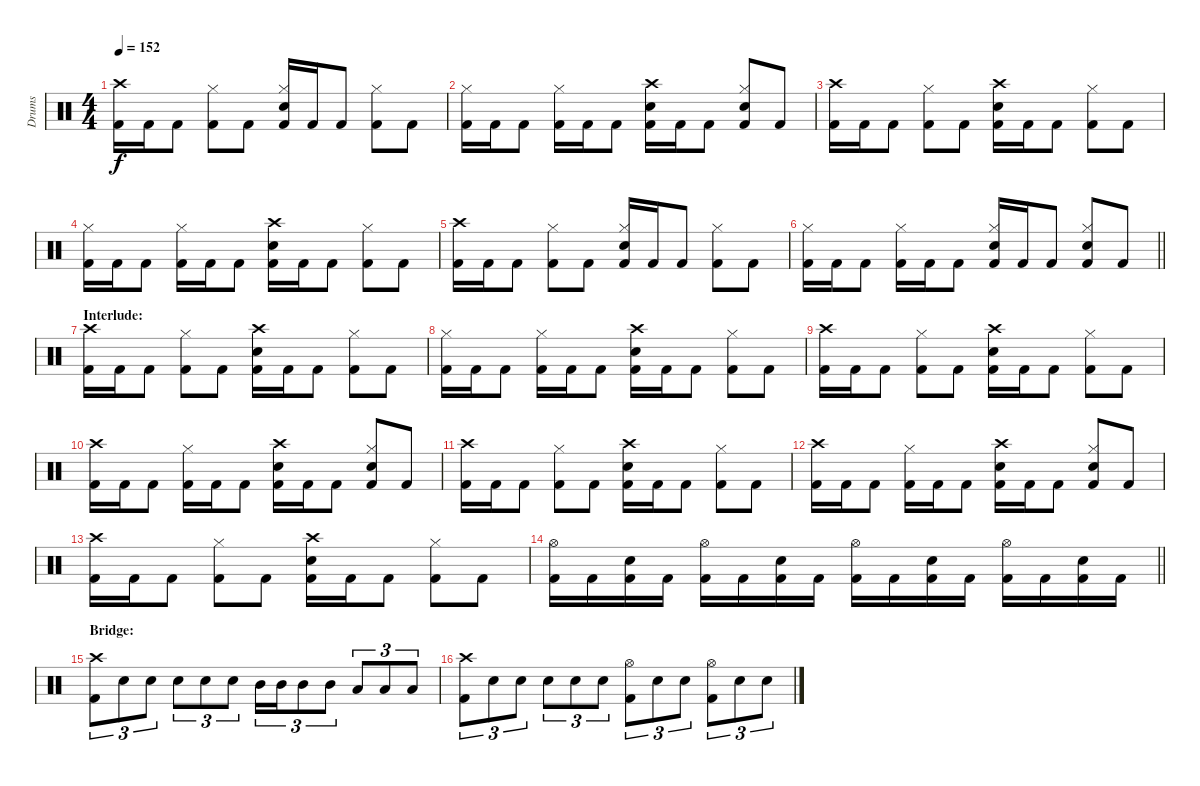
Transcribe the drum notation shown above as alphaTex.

\track ("Drums" "Drums") {instrument percussion}
\staff {score}
\articulation defaults
\ts (4 4)
\tempo 152
\clef neutral
\ks c
("Crash high (hit)" "Kick (hit) 2").16{dy f} "Kick (hit) 2".16 "Kick (hit) 2".8 ("Hi-Hat (closed)" "Kick (hit) 2").8 "Kick (hit) 2".8 ("Hi-Hat (closed)" "Snare (hit) 2" "Kick (hit) 2").16 "Kick (hit) 2".16 "Kick (hit) 2".8 ("Hi-Hat (closed)" "Kick (hit) 2").8 "Kick (hit) 2".8 |
("Hi-Hat (closed)" "Kick (hit) 2").16 "Kick (hit) 2".16 "Kick (hit) 2".8 ("Hi-Hat (closed)" "Kick (hit) 2").16 "Kick (hit) 2".16 "Kick (hit) 2".8 ("Crash high (hit)" "Snare (hit) 2" "Kick (hit) 2").16 "Kick (hit) 2".16 "Kick (hit) 2".8 ("Hi-Hat (closed)" "Snare (hit) 2" "Kick (hit) 2").8 "Kick (hit) 2".8 |
("Crash high (hit)" "Kick (hit) 2").16 "Kick (hit) 2".16 "Kick (hit) 2".8 ("Hi-Hat (closed)" "Kick (hit) 2").8 "Kick (hit) 2".8 ("Crash high (hit)" "Snare (hit) 2" "Kick (hit) 2").16 "Kick (hit) 2".16 "Kick (hit) 2".8 ("Hi-Hat (closed)" "Kick (hit) 2").8 "Kick (hit) 2".8 |
("Hi-Hat (closed)" "Kick (hit) 2").16 "Kick (hit) 2".16 "Kick (hit) 2".8 ("Hi-Hat (closed)" "Kick (hit) 2").16 "Kick (hit) 2".16 "Kick (hit) 2".8 ("Crash high (hit)" "Snare (hit) 2" "Kick (hit) 2").16 "Kick (hit) 2".16 "Kick (hit) 2".8 ("Hi-Hat (closed)" "Kick (hit) 2").8 "Kick (hit) 2".8 |
("Crash high (hit)" "Kick (hit) 2").16 "Kick (hit) 2".16 "Kick (hit) 2".8 ("Hi-Hat (closed)" "Kick (hit) 2").8 "Kick (hit) 2".8 ("Hi-Hat (closed)" "Snare (hit) 2" "Kick (hit) 2").16 "Kick (hit) 2".16 "Kick (hit) 2".8 ("Hi-Hat (closed)" "Kick (hit) 2").8 "Kick (hit) 2".8 |
\barLineRight lightlight
("Hi-Hat (closed)" "Kick (hit) 2").16 "Kick (hit) 2".16 "Kick (hit) 2".8 ("Hi-Hat (closed)" "Kick (hit) 2").16 "Kick (hit) 2".16 "Kick (hit) 2".8 ("Hi-Hat (closed)" "Snare (hit) 2" "Kick (hit) 2").16 "Kick (hit) 2".16 "Kick (hit) 2".8 ("Hi-Hat (closed)" "Snare (hit) 2" "Kick (hit) 2").8 "Kick (hit) 2".8 |
\section ("" "Interlude:")
("Crash high (hit)" "Kick (hit) 2").16 "Kick (hit) 2".16 "Kick (hit) 2".8 ("Hi-Hat (closed)" "Kick (hit) 2").8 "Kick (hit) 2".8 ("Crash high (hit)" "Snare (hit) 2" "Kick (hit) 2").16 "Kick (hit) 2".16 "Kick (hit) 2".8 ("Hi-Hat (closed)" "Kick (hit) 2").8 "Kick (hit) 2".8 |
("Hi-Hat (closed)" "Kick (hit) 2").16 "Kick (hit) 2".16 "Kick (hit) 2".8 ("Hi-Hat (closed)" "Kick (hit) 2").16 "Kick (hit) 2".16 "Kick (hit) 2".8 ("Crash high (hit)" "Snare (hit) 2" "Kick (hit) 2").16 "Kick (hit) 2".16 "Kick (hit) 2".8 ("Hi-Hat (closed)" "Kick (hit) 2").8 "Kick (hit) 2".8 |
("Crash high (hit)" "Kick (hit) 2").16 "Kick (hit) 2".16 "Kick (hit) 2".8 ("Hi-Hat (closed)" "Kick (hit) 2").8 "Kick (hit) 2".8 ("Crash high (hit)" "Snare (hit) 2" "Kick (hit) 2").16 "Kick (hit) 2".16 "Kick (hit) 2".8 ("Hi-Hat (closed)" "Kick (hit) 2").8 "Kick (hit) 2".8 |
("Crash high (hit)" "Kick (hit) 2").16 "Kick (hit) 2".16 "Kick (hit) 2".8 ("Hi-Hat (closed)" "Kick (hit) 2").16 "Kick (hit) 2".16 "Kick (hit) 2".8 ("Crash high (hit)" "Snare (hit) 2" "Kick (hit) 2").16 "Kick (hit) 2".16 "Kick (hit) 2".8 ("Hi-Hat (closed)" "Snare (hit) 2" "Kick (hit) 2").8 "Kick (hit) 2".8 |
("Crash high (hit)" "Kick (hit) 2").16 "Kick (hit) 2".16 "Kick (hit) 2".8 ("Hi-Hat (closed)" "Kick (hit) 2").8 "Kick (hit) 2".8 ("Crash high (hit)" "Snare (hit) 2" "Kick (hit) 2").16 "Kick (hit) 2".16 "Kick (hit) 2".8 ("Hi-Hat (closed)" "Kick (hit) 2").8 "Kick (hit) 2".8 |
("Crash high (hit)" "Kick (hit) 2").16 "Kick (hit) 2".16 "Kick (hit) 2".8 ("Hi-Hat (closed)" "Kick (hit) 2").16 "Kick (hit) 2".16 "Kick (hit) 2".8 ("Crash high (hit)" "Snare (hit) 2" "Kick (hit) 2").16 "Kick (hit) 2".16 "Kick (hit) 2".8 ("Hi-Hat (closed)" "Snare (hit) 2" "Kick (hit) 2").8 "Kick (hit) 2".8 |
("Crash high (hit)" "Kick (hit) 2").16 "Kick (hit) 2".16 "Kick (hit) 2".8 ("Hi-Hat (closed)" "Kick (hit) 2").8 "Kick (hit) 2".8 ("Crash high (hit)" "Snare (hit) 2" "Kick (hit) 2").16 "Kick (hit) 2".16 "Kick (hit) 2".8 ("Hi-Hat (closed)" "Kick (hit) 2").8 "Kick (hit) 2".8 |
\barLineRight lightlight
("Hi-Hat (open)" "Kick (hit) 2").16 "Kick (hit) 2".16 ("Snare (hit) 2" "Kick (hit) 2").16 "Kick (hit) 2".16 ("Hi-Hat (open)" "Kick (hit) 2").16 "Kick (hit) 2".16 ("Snare (hit) 2" "Kick (hit) 2").16 "Kick (hit) 2".16 ("Hi-Hat (open)" "Kick (hit) 2").16 "Kick (hit) 2".16 ("Snare (hit) 2" "Kick (hit) 2").16 "Kick (hit) 2".16 ("Hi-Hat (open)" "Kick (hit) 2").16 "Kick (hit) 2".16 ("Snare (hit) 2" "Kick (hit) 2").16 "Kick (hit) 2".16 |
\section ("" "Bridge:")
("Crash high (hit)" "Kick (hit) 2").8{tu (3 2)} "Snare (hit) 2".8{tu (3 2)} "Snare (hit) 2".8{tu (3 2)} "Snare (hit) 2".8{tu (3 2)} "Snare (hit) 2".8{tu (3 2)} "Snare (hit) 2".8{tu (3 2)} "Mid Tom (hit)".16{tu (3 2)} "Mid Tom (hit)".16{tu (3 2)} "Mid Tom (hit)".8{tu (3 2)} "Mid Tom (hit)".8{tu (3 2)} "Low Tom (hit)".8{tu (3 2)} "Low Tom (hit)".8{tu (3 2)} "Low Tom (hit)".8{tu (3 2)} |
("Crash high (hit)" "Kick (hit) 2").8{tu (3 2)} "Snare (hit) 2".8{tu (3 2)} "Snare (hit) 2".8{tu (3 2)} "Snare (hit) 2".8{tu (3 2)} "Snare (hit) 2".8{tu (3 2)} "Snare (hit) 2".8{tu (3 2)} ("Hi-Hat (open)" "Kick (hit) 2").8{tu (3 2)} "Snare (hit) 2".8{tu (3 2)} "Snare (hit) 2".8{tu (3 2)} ("Hi-Hat (open)" "Kick (hit) 2").8{tu (3 2)} "Snare (hit) 2".8{tu (3 2)} "Snare (hit) 2".8{tu (3 2)}
